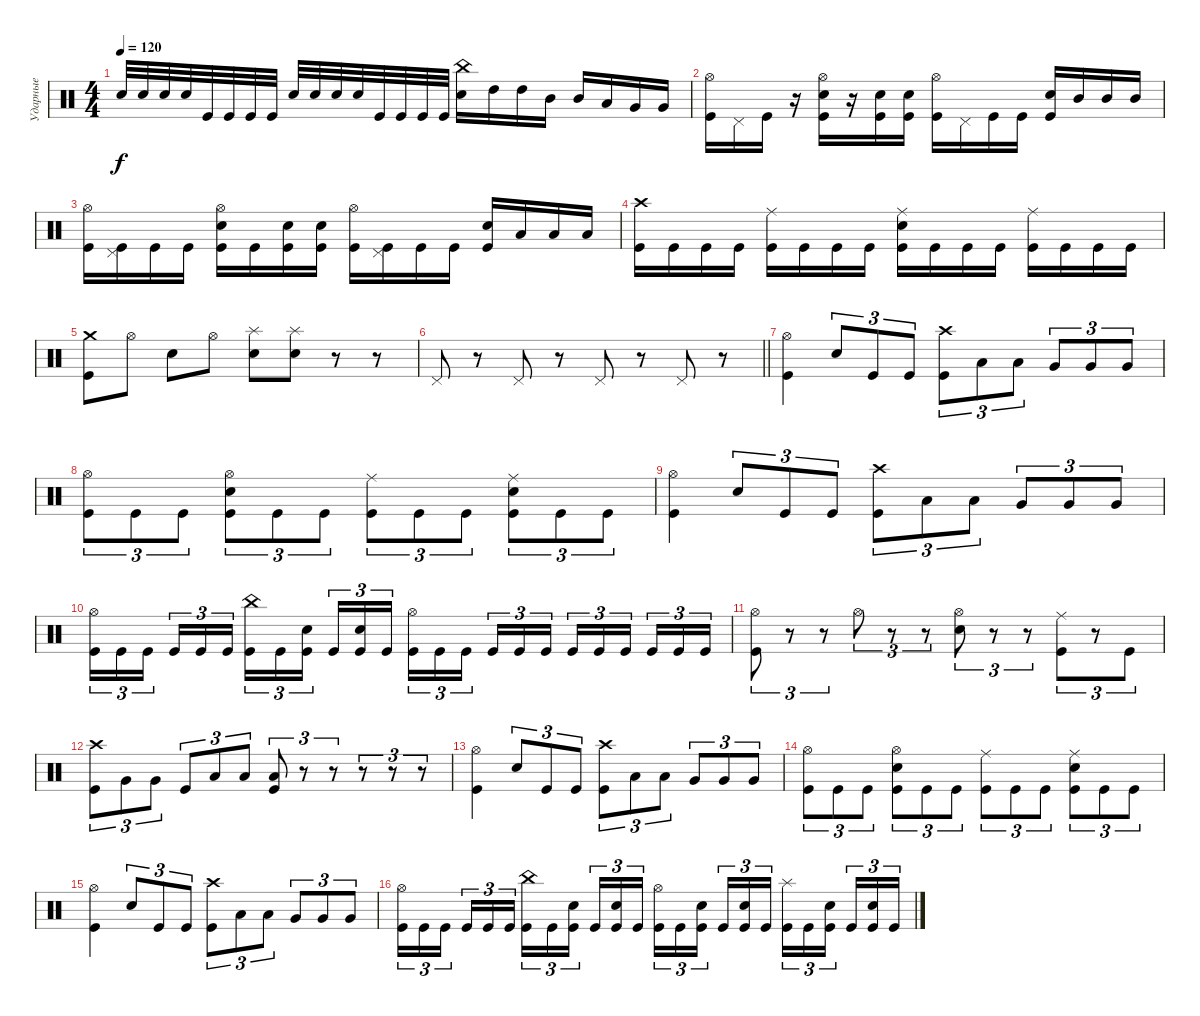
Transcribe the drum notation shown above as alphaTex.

\track ("Ударные" "Ударные") {instrument percussion}
\staff {score}
\articulation defaults
\ts (4 4)
\tempo 120
\clef neutral
\ks c "Electric Snare (hit)".32{dy f} "Electric Snare (hit)".32 "Electric Snare (hit)".32 "Electric Snare (hit)".32 "Kick (hit)".32 "Kick (hit)".32 "Kick (hit)".32 "Kick (hit)".32 "Electric Snare (hit)".32 "Electric Snare (hit)".32 "Electric Snare (hit)".32 "Electric Snare (hit)".32 "Kick (hit)".32 "Kick (hit)".32 "Kick (hit)".32 "Kick (hit)".32
("Electric Snare (hit)" "China (hit)").16 "High Tom (hit)".16 "High Tom (hit)".16 "Mid Tom (hit)".16 "Mid Tom (hit)".16 "Low Tom (hit)".16 "Very Low Tom (hit)".16 "Very Low Tom (hit)".16 |
("Hi-Hat (open)" "Kick (hit)").16 "Pedal Hi-Hat (hit)".16 "Kick (hit)".16 r.16 ("Electric Snare (hit)" "Hi-Hat (open)" "Kick (hit)").16 r.16 ("Electric Snare (hit)" "Kick (hit)").16 ("Electric Snare (hit)" "Kick (hit)").16 ("Hi-Hat (open)" "Kick (hit)").16 "Pedal Hi-Hat (hit)".16 "Kick (hit)".16 "Kick (hit)".16 ("Electric Snare (hit)" "Kick (hit)").16 "Mid Tom (hit)".16 "Mid Tom (hit)".16 "Mid Tom (hit)".16 |
("Hi-Hat (open)" "Kick (hit)").16 ("Pedal Hi-Hat (hit)" "Kick (hit)").16 "Kick (hit)".16 "Kick (hit)".16 ("Electric Snare (hit)" "Hi-Hat (open)" "Kick (hit)").16 "Kick (hit)".16 ("Electric Snare (hit)" "Kick (hit)").16 ("Electric Snare (hit)" "Kick (hit)").16 ("Hi-Hat (open)" "Kick (hit)").16 ("Pedal Hi-Hat (hit)" "Kick (hit)").16 "Kick (hit)".16 "Kick (hit)".16 ("Electric Snare (hit)" "Kick (hit)").16 "Low Tom (hit)".16 "Low Tom (hit)".16 "Low Tom (hit)".16 |
("Crash high (hit)" "Kick (hit)").16 "Kick (hit)".16 "Kick (hit)".16 "Kick (hit)".16 ("Ride (middle)" "Kick (hit)").16 "Kick (hit)".16 "Kick (hit)".16 "Kick (hit)".16 ("Electric Snare (hit)" "Ride (middle)" "Kick (hit)").16 "Kick (hit)".16 "Kick (hit)".16 "Kick (hit)".16 ("Ride (middle)" "Kick (hit)").16 "Kick (hit)".16 "Kick (hit)".16 "Kick (hit)".16 |
("Crash medium (hit)" "Kick (hit)").8 "Hi-Hat (open)".8 "Electric Snare (hit)".8 "Hi-Hat (open)".8 ("Electric Snare (hit)" "Splash (hit)").8 ("Electric Snare (hit)" "Splash (hit)").8 r.8 r.8 |
\barLineRight lightlight "Pedal Hi-Hat (hit)".8
r.8 "Pedal Hi-Hat (hit)".8 r.8 "Pedal Hi-Hat (hit)".8 r.8 "Pedal Hi-Hat (hit)".8 r.8 |
\section ("" " ")
("Hi-Hat (open)" "Kick (hit)").4 "Electric Snare (hit)".8{tu (3 2)} "Kick (hit)".8{tu (3 2)} "Kick (hit)".8{tu (3 2)} ("Crash high (hit)" "Kick (hit)").8{tu (3 2)} "Low Tom (hit)".8{tu (3 2)} "Low Tom (hit)".8{tu (3 2)} "Very Low Tom (hit)".8{tu (3 2)} "Very Low Tom (hit)".8{tu (3 2)} "Very Low Tom (hit)".8{tu (3 2)} |
("Hi-Hat (open)" "Kick (hit)").8{tu (3 2)} "Kick (hit)".8{tu (3 2)} "Kick (hit)".8{tu (3 2)} ("Hi-Hat (open)" "Electric Snare (hit)" "Kick (hit)").8{tu (3 2)} "Kick (hit)".8{tu (3 2)} "Kick (hit)".8{tu (3 2)} ("Ride (middle)" "Kick (hit)").8{tu (3 2)} "Kick (hit)".8{tu (3 2)} "Kick (hit)".8{tu (3 2)} ("Ride (middle)" "Electric Snare (hit)" "Kick (hit)").8{tu (3 2)} "Kick (hit)".8{tu (3 2)} "Kick (hit)".8{tu (3 2)} |
("Hi-Hat (open)" "Kick (hit)").4 "Electric Snare (hit)".8{tu (3 2)} "Kick (hit)".8{tu (3 2)} "Kick (hit)".8{tu (3 2)} ("Crash high (hit)" "Kick (hit)").8{tu (3 2)} "Low Tom (hit)".8{tu (3 2)} "Low Tom (hit)".8{tu (3 2)} "Very Low Tom (hit)".8{tu (3 2)} "Very Low Tom (hit)".8{tu (3 2)} "Very Low Tom (hit)".8{tu (3 2)} |
("Hi-Hat (open)" "Kick (hit)").16{tu (3 2)} "Kick (hit)".16{tu (3 2)} "Kick (hit)".16{tu (3 2) beam splitsecondary} "Kick (hit)".16{tu (3 2)} "Kick (hit)".16{tu (3 2)} "Kick (hit)".16{tu (3 2)} ("China (hit)" "Kick (hit)").16{tu (3 2)} "Kick (hit)".16{tu (3 2)} ("Electric Snare (hit)" "Kick (hit)").16{tu (3 2) beam splitsecondary} "Kick (hit)".16{tu (3 2)} ("Electric Snare (hit)" "Kick (hit)").16{tu (3 2)} "Kick (hit)".16{tu (3 2)} ("Hi-Hat (open)" "Kick (hit)").16{tu (3 2)} "Kick (hit)".16{tu (3 2)} "Kick (hit)".16{tu (3 2) beam splitsecondary} "Kick (hit)".16{tu (3 2)} "Kick (hit)".16{tu (3 2)} "Kick (hit)".16{tu (3 2)} "Kick (hit)".16{tu (3 2)} "Kick (hit)".16{tu (3 2)} "Kick (hit)".16{tu (3 2) beam splitsecondary} "Kick (hit)".16{tu (3 2)} "Kick (hit)".16{tu (3 2)} "Kick (hit)".16{tu (3 2)} |
("Hi-Hat (open)" "Kick (hit)").8{tu (3 2)} r.8{tu (3 2)} r.8{tu (3 2)} "Hi-Hat (open)".8{tu (3 2)} r.8{tu (3 2)} r.8{tu (3 2)} ("Hi-Hat (open)" "Electric Snare (hit)").8{tu (3 2)} r.8{tu (3 2)} r.8{tu (3 2)} ("Ride (middle)" "Kick (hit)").8{tu (3 2)} r.8{tu (3 2)} "Kick (hit)".8{tu (3 2)} |
("Crash high (hit)" "Kick (hit)").8{tu (3 2)} "Very Low Tom (hit)".8{tu (3 2)} "Very Low Tom (hit)".8{tu (3 2)} "Kick (hit)".8{tu (3 2)} "Low Tom (hit)".8{tu (3 2)} "Low Tom (hit)".8{tu (3 2)} ("Low Floor Tom (hit)" "Kick (hit)").8{tu (3 2)} r.8{tu (3 2)} r.8{tu (3 2)} r.8{tu (3 2)} r.8{tu (3 2)} r.8{tu (3 2)} |
("Hi-Hat (open)" "Kick (hit)").4 "Electric Snare (hit)".8{tu (3 2)} "Kick (hit)".8{tu (3 2)} "Kick (hit)".8{tu (3 2)} ("Crash high (hit)" "Kick (hit)").8{tu (3 2)} "Low Tom (hit)".8{tu (3 2)} "Low Tom (hit)".8{tu (3 2)} "Very Low Tom (hit)".8{tu (3 2)} "Very Low Tom (hit)".8{tu (3 2)} "Very Low Tom (hit)".8{tu (3 2)} |
("Hi-Hat (open)" "Kick (hit)").8{tu (3 2)} "Kick (hit)".8{tu (3 2)} "Kick (hit)".8{tu (3 2)} ("Hi-Hat (open)" "Electric Snare (hit)" "Kick (hit)").8{tu (3 2)} "Kick (hit)".8{tu (3 2)} "Kick (hit)".8{tu (3 2)} ("Ride (middle)" "Kick (hit)").8{tu (3 2)} "Kick (hit)".8{tu (3 2)} "Kick (hit)".8{tu (3 2)} ("Ride (middle)" "Electric Snare (hit)" "Kick (hit)").8{tu (3 2)} "Kick (hit)".8{tu (3 2)} "Kick (hit)".8{tu (3 2)} |
("Hi-Hat (open)" "Kick (hit)").4 "Electric Snare (hit)".8{tu (3 2)} "Kick (hit)".8{tu (3 2)} "Kick (hit)".8{tu (3 2)} ("Crash high (hit)" "Kick (hit)").8{tu (3 2)} "Low Tom (hit)".8{tu (3 2)} "Low Tom (hit)".8{tu (3 2)} "Very Low Tom (hit)".8{tu (3 2)} "Very Low Tom (hit)".8{tu (3 2)} "Very Low Tom (hit)".8{tu (3 2)} |
("Hi-Hat (open)" "Kick (hit)").16{tu (3 2)} "Kick (hit)".16{tu (3 2)} "Kick (hit)".16{tu (3 2) beam splitsecondary} "Kick (hit)".16{tu (3 2)} "Kick (hit)".16{tu (3 2)} "Kick (hit)".16{tu (3 2)} ("China (hit)" "Kick (hit)").16{tu (3 2)} "Kick (hit)".16{tu (3 2)} ("Electric Snare (hit)" "Kick (hit)").16{tu (3 2) beam splitsecondary} "Kick (hit)".16{tu (3 2)} ("Electric Snare (hit)" "Kick (hit)").16{tu (3 2)} "Kick (hit)".16{tu (3 2)} ("Hi-Hat (open)" "Kick (hit)").16{tu (3 2)} "Kick (hit)".16{tu (3 2)} ("Electric Snare (hit)" "Kick (hit)").16{tu (3 2) beam splitsecondary} "Kick (hit)".16{tu (3 2)} ("Electric Snare (hit)" "Kick (hit)").16{tu (3 2)} "Kick (hit)".16{tu (3 2)} ("Splash (hit)" "Kick (hit)").16{tu (3 2)} "Kick (hit)".16{tu (3 2)} ("Electric Snare (hit)" "Kick (hit)").16{tu (3 2) beam splitsecondary} "Kick (hit)".16{tu (3 2)} ("Electric Snare (hit)" "Kick (hit)").16{tu (3 2)} "Kick (hit)".16{tu (3 2)}
